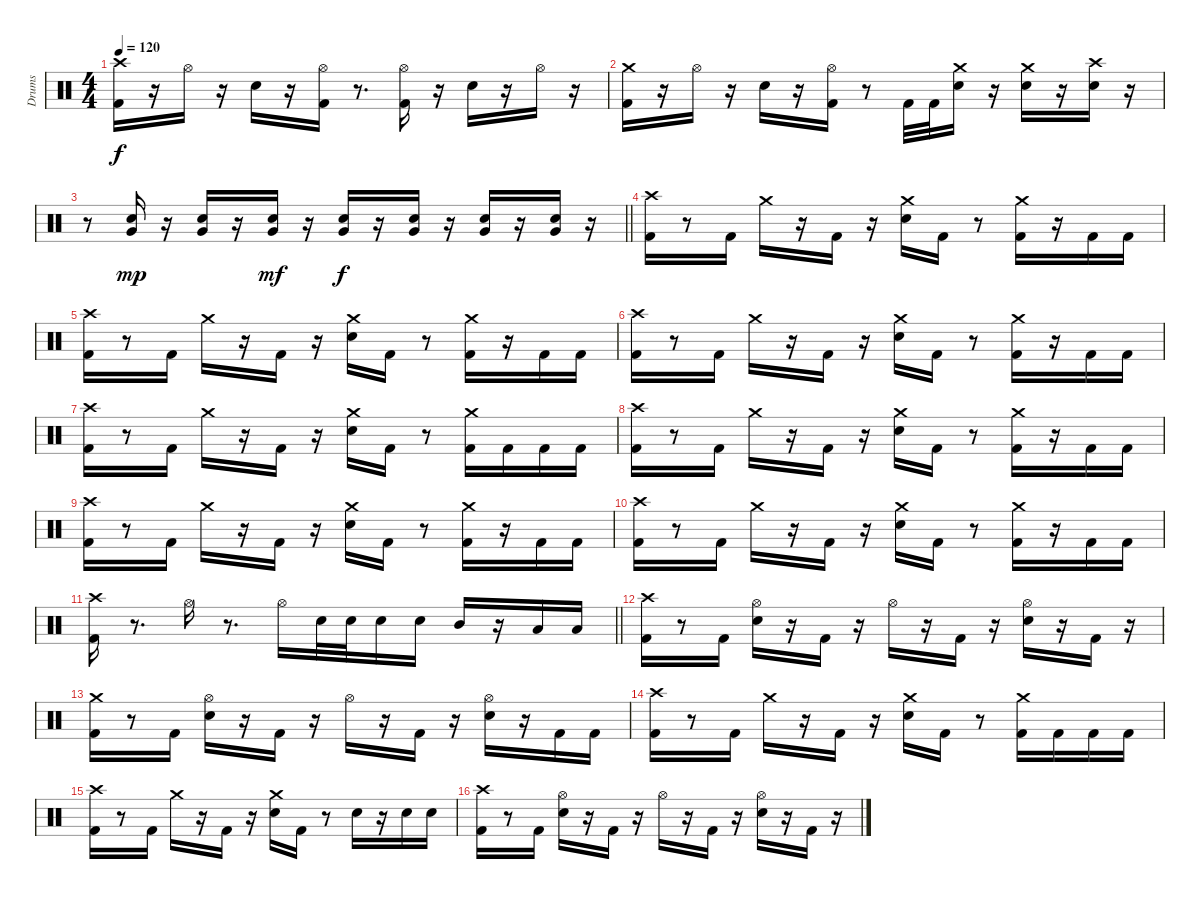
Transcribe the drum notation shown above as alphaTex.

\track ("Drums" "Drums") {instrument percussion}
\staff {score}
\articulation defaults
\ts (4 4)
\tempo 120
\clef neutral
\ks c
("Kick (hit) 2" "Crash high (hit)").16{dy f} r.16 "Hi-Hat (open)".16 r.16 "Snare (hit) 2".16 r.16 ("Kick (hit) 2" "Hi-Hat (open)").16 r.8{d} ("Kick (hit) 2" "Hi-Hat (open)").16 r.16 "Snare (hit) 2".16 r.16 "Hi-Hat (open)".16 r.16 |
("Kick (hit) 2" "Crash medium (hit)").16 r.16 "Hi-Hat (open)".16 r.16 "Snare (hit) 2".16 r.16 ("Kick (hit) 2" "Hi-Hat (open)").16 r.8 "Kick (hit) 2".32 "Kick (hit) 2".32 ("Snare (hit) 2" "Crash medium (hit)").16 r.16 ("Snare (hit) 2" "Crash medium (hit)").16 r.16 ("Snare (hit) 2" "Crash high (hit)").16 r.16 |
\barLineRight lightlight
r.8 ("Snare (hit) 2" "Very Low Tom (hit)").16{dy mp} r.16 ("Snare (hit) 2" "Very Low Tom (hit)").16 r.16 ("Snare (hit) 2" "Very Low Tom (hit)").16{dy mf} r.16 ("Snare (hit) 2" "Very Low Tom (hit)").16{dy f} r.16 ("Snare (hit) 2" "Very Low Tom (hit)").16 r.16 ("Snare (hit) 2" "Very Low Tom (hit)").16 r.16 ("Snare (hit) 2" "Very Low Tom (hit)").16 r.16 |
\section ("" " ")
("Kick (hit) 2" "Crash high (hit)").16 r.8 "Kick (hit) 2".16 "Crash medium (hit)".16 r.16 "Kick (hit) 2".16 r.16 ("Snare (hit) 2" "Crash medium (hit)").16 "Kick (hit) 2".16 r.8 ("Kick (hit) 2" "Crash medium (hit)").16 r.16 "Kick (hit) 2".16 "Kick (hit) 2".16 |
("Kick (hit) 2" "Crash high (hit)").16 r.8 "Kick (hit) 2".16 "Crash medium (hit)".16 r.16 "Kick (hit) 2".16 r.16 ("Snare (hit) 2" "Crash medium (hit)").16 "Kick (hit) 2".16 r.8 ("Kick (hit) 2" "Crash medium (hit)").16 r.16 "Kick (hit) 2".16 "Kick (hit) 2".16 |
("Kick (hit) 2" "Crash high (hit)").16 r.8 "Kick (hit) 2".16 "Crash medium (hit)".16 r.16 "Kick (hit) 2".16 r.16 ("Snare (hit) 2" "Crash medium (hit)").16 "Kick (hit) 2".16 r.8 ("Kick (hit) 2" "Crash medium (hit)").16 r.16 "Kick (hit) 2".16 "Kick (hit) 2".16 |
("Kick (hit) 2" "Crash high (hit)").16 r.8 "Kick (hit) 2".16 "Crash medium (hit)".16 r.16 "Kick (hit) 2".16 r.16 ("Snare (hit) 2" "Crash medium (hit)").16 "Kick (hit) 2".16 r.8 ("Kick (hit) 2" "Crash medium (hit)").16 "Kick (hit) 2".16 "Kick (hit) 2".16 "Kick (hit) 2".16 |
("Kick (hit) 2" "Crash high (hit)").16 r.8 "Kick (hit) 2".16 "Crash medium (hit)".16 r.16 "Kick (hit) 2".16 r.16 ("Snare (hit) 2" "Crash medium (hit)").16 "Kick (hit) 2".16 r.8 ("Kick (hit) 2" "Crash medium (hit)").16 r.16 "Kick (hit) 2".16 "Kick (hit) 2".16 |
("Kick (hit) 2" "Crash high (hit)").16 r.8 "Kick (hit) 2".16 "Crash medium (hit)".16 r.16 "Kick (hit) 2".16 r.16 ("Snare (hit) 2" "Crash medium (hit)").16 "Kick (hit) 2".16 r.8 ("Kick (hit) 2" "Crash medium (hit)").16 r.16 "Kick (hit) 2".16 "Kick (hit) 2".16 |
("Kick (hit) 2" "Crash high (hit)").16 r.8 "Kick (hit) 2".16 "Crash medium (hit)".16 r.16 "Kick (hit) 2".16 r.16 ("Snare (hit) 2" "Crash medium (hit)").16 "Kick (hit) 2".16 r.8 ("Kick (hit) 2" "Crash medium (hit)").16 r.16 "Kick (hit) 2".16 "Kick (hit) 2".16 |
\barLineRight lightlight
("Kick (hit) 2" "Crash high (hit)").16 r.8{d} "Hi-Hat (open)".16 r.8{d} "Hi-Hat (open)".16 "Snare (hit) 2".32 "Snare (hit) 2".32 "Snare (hit) 2".16 "Snare (hit) 2".16 "Mid Tom (hit)".16 r.16 "Low Tom (hit)".16 "Low Tom (hit)".16 |
\section ("" " ")
("Kick (hit) 2" "Crash high (hit)").16 r.8 "Kick (hit) 2".16 ("Snare (hit) 2" "Hi-Hat (open)").16 r.16 "Kick (hit) 2".16 r.16 "Hi-Hat (open)".16 r.16 "Kick (hit) 2".16 r.16 ("Snare (hit) 2" "Hi-Hat (open)").16 r.16 "Kick (hit) 2".16 r.16 |
("Kick (hit) 2" "Crash medium (hit)").16 r.8 "Kick (hit) 2".16 ("Snare (hit) 2" "Hi-Hat (open)").16 r.16 "Kick (hit) 2".16 r.16 "Hi-Hat (open)".16 r.16 "Kick (hit) 2".16 r.16 ("Snare (hit) 2" "Hi-Hat (open)").16 r.16 "Kick (hit) 2".16 "Kick (hit) 2".16 |
("Kick (hit) 2" "Crash high (hit)").16 r.8 "Kick (hit) 2".16 "Crash medium (hit)".16 r.16 "Kick (hit) 2".16 r.16 ("Snare (hit) 2" "Crash medium (hit)").16 "Kick (hit) 2".16 r.8 ("Kick (hit) 2" "Crash medium (hit)").16 "Kick (hit) 2".16 "Kick (hit) 2".16 "Kick (hit) 2".16 |
("Kick (hit) 2" "Crash high (hit)").16 r.8 "Kick (hit) 2".16 "Crash medium (hit)".16 r.16 "Kick (hit) 2".16 r.16 ("Snare (hit) 2" "Crash medium (hit)").16 "Kick (hit) 2".16 r.8 "Snare (hit) 2".16 r.16 "Snare (hit) 2".16 "Snare (hit) 2".16 |
("Kick (hit) 2" "Crash high (hit)").16 r.8 "Kick (hit) 2".16 ("Snare (hit) 2" "Hi-Hat (open)").16 r.16 "Kick (hit) 2".16 r.16 "Hi-Hat (open)".16 r.16 "Kick (hit) 2".16 r.16 ("Snare (hit) 2" "Hi-Hat (open)").16 r.16 "Kick (hit) 2".16 r.16
